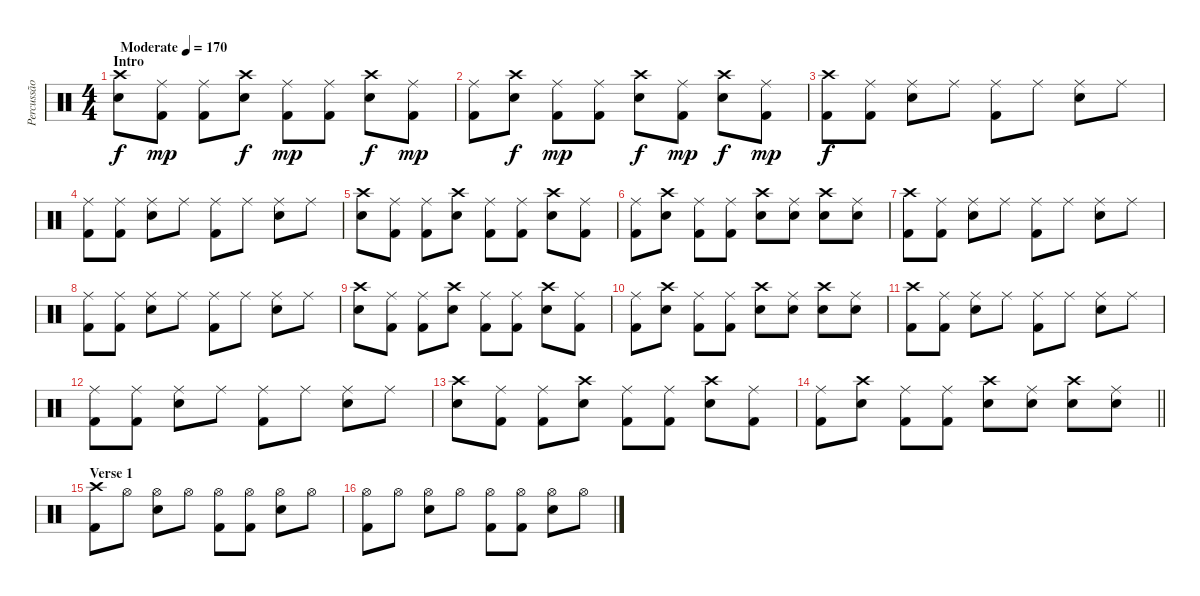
\track ("Percussão" "Percussão") {instrument percussion}
\staff {score}
\articulation defaults
\ts (4 4)
\section ("" "Intro")
\tempo (170 "Moderate")
\clef neutral
\ks c
("Crash high (hit)" "Snare (hit) 2").8{dy f} ("Ride (middle)" "Kick (hit) 2").8{dy mp} ("Ride (middle)" "Kick (hit) 2").8 ("Crash high (hit)" "Snare (hit) 2").8{dy f} ("Ride (middle)" "Kick (hit) 2").8{dy mp} ("Ride (middle)" "Kick (hit) 2").8 ("Crash high (hit)" "Snare (hit) 2").8{dy f} ("Ride (middle)" "Kick (hit) 2").8{dy mp} |
("Ride (middle)" "Kick (hit) 2").8 ("Crash high (hit)" "Snare (hit) 2").8{dy f} ("Ride (middle)" "Kick (hit) 2").8{dy mp} ("Ride (middle)" "Kick (hit) 2").8 ("Crash high (hit)" "Snare (hit) 2").8{dy f} ("Ride (middle)" "Kick (hit) 2").8{dy mp} ("Crash high (hit)" "Snare (hit) 2").8{dy f} ("Ride (middle)" "Kick (hit) 2").8{dy mp} |
("Crash high (hit)" "Kick (hit) 2").8{dy f} ("Ride (middle)" "Kick (hit) 2").8 ("Ride (middle)" "Snare (hit) 2").8 "Ride (middle)".8 ("Ride (middle)" "Kick (hit) 2").8 "Ride (middle)".8 ("Ride (middle)" "Snare (hit) 2").8 "Ride (middle)".8 |
("Ride (middle)" "Kick (hit) 2").8 ("Ride (middle)" "Kick (hit) 2").8 ("Ride (middle)" "Snare (hit) 2").8 "Ride (middle)".8 ("Ride (middle)" "Kick (hit) 2").8 "Ride (middle)".8 ("Ride (middle)" "Snare (hit) 2").8 "Ride (middle)".8 |
("Crash high (hit)" "Snare (hit) 2").8 ("Ride (middle)" "Kick (hit) 2").8 ("Ride (middle)" "Kick (hit) 2").8 ("Crash high (hit)" "Snare (hit) 2").8 ("Ride (middle)" "Kick (hit) 2").8 ("Ride (middle)" "Kick (hit) 2").8 ("Crash high (hit)" "Snare (hit) 2").8 ("Ride (middle)" "Kick (hit) 2").8 |
("Ride (middle)" "Kick (hit) 2").8 ("Crash high (hit)" "Snare (hit) 2").8 ("Ride (middle)" "Kick (hit) 2").8 ("Ride (middle)" "Kick (hit) 2").8 ("Crash high (hit)" "Snare (hit) 2").8 ("Ride (middle)" "Snare (hit) 2").8 ("Crash high (hit)" "Snare (hit) 2").8 ("Ride (middle)" "Snare (hit) 2").8 |
("Crash high (hit)" "Kick (hit) 2").8 ("Ride (middle)" "Kick (hit) 2").8 ("Ride (middle)" "Snare (hit) 2").8 "Ride (middle)".8 ("Ride (middle)" "Kick (hit) 2").8 "Ride (middle)".8 ("Ride (middle)" "Snare (hit) 2").8 "Ride (middle)".8 |
("Ride (middle)" "Kick (hit) 2").8 ("Ride (middle)" "Kick (hit) 2").8 ("Ride (middle)" "Snare (hit) 2").8 "Ride (middle)".8 ("Ride (middle)" "Kick (hit) 2").8 "Ride (middle)".8 ("Ride (middle)" "Snare (hit) 2").8 "Ride (middle)".8 |
("Crash high (hit)" "Snare (hit) 2").8 ("Ride (middle)" "Kick (hit) 2").8 ("Ride (middle)" "Kick (hit) 2").8 ("Crash high (hit)" "Snare (hit) 2").8 ("Ride (middle)" "Kick (hit) 2").8 ("Ride (middle)" "Kick (hit) 2").8 ("Crash high (hit)" "Snare (hit) 2").8 ("Ride (middle)" "Kick (hit) 2").8 |
("Ride (middle)" "Kick (hit) 2").8 ("Crash high (hit)" "Snare (hit) 2").8 ("Ride (middle)" "Kick (hit) 2").8 ("Ride (middle)" "Kick (hit) 2").8 ("Crash high (hit)" "Snare (hit) 2").8 ("Ride (middle)" "Snare (hit) 2").8 ("Crash high (hit)" "Snare (hit) 2").8 ("Ride (middle)" "Snare (hit) 2").8 |
("Crash high (hit)" "Kick (hit) 2").8 ("Ride (middle)" "Kick (hit) 2").8 ("Ride (middle)" "Snare (hit) 2").8 "Ride (middle)".8 ("Ride (middle)" "Kick (hit) 2").8 "Ride (middle)".8 ("Ride (middle)" "Snare (hit) 2").8 "Ride (middle)".8 |
("Ride (middle)" "Kick (hit) 2").8 ("Ride (middle)" "Kick (hit) 2").8 ("Ride (middle)" "Snare (hit) 2").8 "Ride (middle)".8 ("Ride (middle)" "Kick (hit) 2").8 "Ride (middle)".8 ("Ride (middle)" "Snare (hit) 2").8 "Ride (middle)".8 |
("Crash high (hit)" "Snare (hit) 2").8 ("Ride (middle)" "Kick (hit) 2").8 ("Ride (middle)" "Kick (hit) 2").8 ("Crash high (hit)" "Snare (hit) 2").8 ("Ride (middle)" "Kick (hit) 2").8 ("Ride (middle)" "Kick (hit) 2").8 ("Crash high (hit)" "Snare (hit) 2").8 ("Ride (middle)" "Kick (hit) 2").8 |
\barLineRight lightlight
("Ride (middle)" "Kick (hit) 2").8 ("Crash high (hit)" "Snare (hit) 2").8 ("Ride (middle)" "Kick (hit) 2").8 ("Ride (middle)" "Kick (hit) 2").8 ("Crash high (hit)" "Snare (hit) 2").8 ("Ride (middle)" "Snare (hit) 2").8 ("Crash high (hit)" "Snare (hit) 2").8 ("Ride (middle)" "Snare (hit) 2").8 |
\section ("" "Verse 1")
("Crash high (hit)" "Kick (hit) 2").8 "Hi-Hat (open)".8 ("Hi-Hat (open)" "Snare (hit) 2").8 "Hi-Hat (open)".8 ("Hi-Hat (open)" "Kick (hit) 2").8 ("Hi-Hat (open)" "Kick (hit) 2").8 ("Hi-Hat (open)" "Snare (hit) 2").8 "Hi-Hat (open)".8 |
("Hi-Hat (open)" "Kick (hit) 2").8 "Hi-Hat (open)".8 ("Hi-Hat (open)" "Snare (hit) 2").8 "Hi-Hat (open)".8 ("Hi-Hat (open)" "Kick (hit) 2").8 ("Hi-Hat (open)" "Kick (hit) 2").8 ("Hi-Hat (open)" "Snare (hit) 2").8 "Hi-Hat (open)".8
